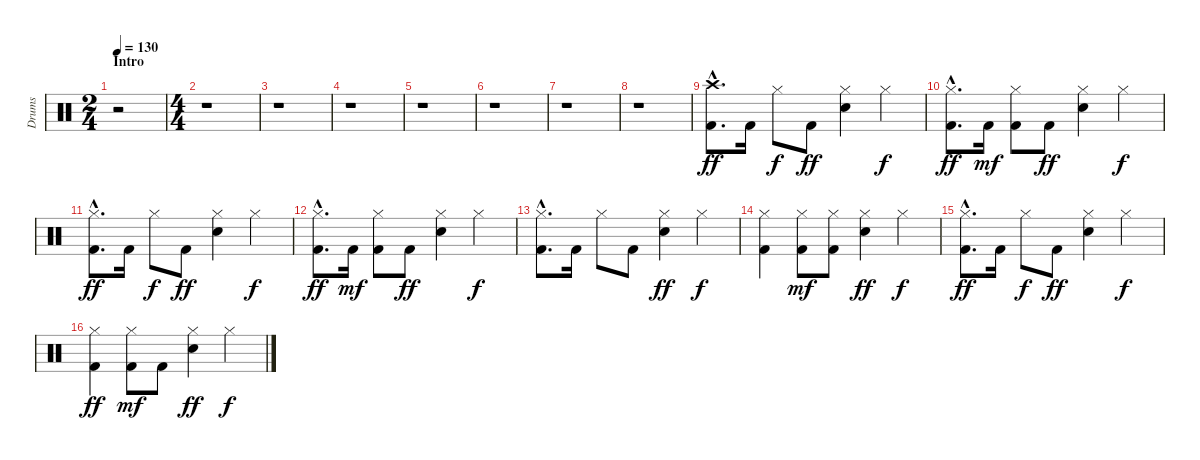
\track ("Drums" "Drums") {instrument percussion}
\staff {score}
\articulation defaults
\ts (2 4)
\section ("" "Intro")
\tempo 130
\clef neutral
\ks c
r.2{dy ff} |
\ts (4 4)
r.1 |
r.1 |
r.1 |
r.1 |
r.1 |
r.1 |
r.1 |
("Crash high (hit)"{hac} "Kick (hit) 2"{hac}).8{d} "Kick (hit) 2".16 "Hi-Hat (closed)".8{dy f} "Kick (hit) 2".8{dy ff} ("Hi-Hat (closed)" "Electric Snare (hit)").4 "Hi-Hat (closed)".4{dy f} |
("Hi-Hat (closed)"{hac} "Kick (hit) 2"{hac}).8{d dy ff} "Kick (hit) 2".16{dy mf} ("Hi-Hat (closed)" "Kick (hit) 2").8 "Kick (hit) 2".8{dy ff} ("Hi-Hat (closed)" "Electric Snare (hit)").4 "Hi-Hat (closed)".4{dy f} |
("Hi-Hat (closed)"{hac} "Kick (hit) 2"{hac}).8{d dy ff} "Kick (hit) 2".16 "Hi-Hat (closed)".8{dy f} "Kick (hit) 2".8{dy ff} ("Hi-Hat (closed)" "Electric Snare (hit)").4 "Hi-Hat (closed)".4{dy f} |
("Hi-Hat (closed)"{hac} "Kick (hit) 2"{hac}).8{d dy ff} "Kick (hit) 2".16{dy mf} ("Hi-Hat (closed)" "Kick (hit) 2").8 "Kick (hit) 2".8{dy ff} ("Hi-Hat (closed)" "Electric Snare (hit)").4 "Hi-Hat (closed)".4{dy f} |
("Hi-Hat (closed)"{hac} "Kick (hit) 2"{hac}).8{d} "Kick (hit) 2".16 "Hi-Hat (closed)".8 "Kick (hit) 2".8 ("Hi-Hat (closed)" "Electric Snare (hit)").4{dy ff} "Hi-Hat (closed)".4{dy f} |
("Hi-Hat (closed)" "Kick (hit) 2").4 ("Hi-Hat (closed)" "Kick (hit) 2").8{dy mf} ("Hi-Hat (closed)" "Kick (hit) 2").8 ("Hi-Hat (closed)" "Electric Snare (hit)").4{dy ff} "Hi-Hat (closed)".4{dy f} |
("Hi-Hat (closed)"{hac} "Kick (hit) 2"{hac}).8{d dy ff} "Kick (hit) 2".16 "Hi-Hat (closed)".8{dy f} "Kick (hit) 2".8{dy ff} ("Hi-Hat (closed)" "Electric Snare (hit)").4 "Hi-Hat (closed)".4{dy f} |
("Hi-Hat (closed)" "Kick (hit) 2").4{dy ff} ("Hi-Hat (closed)" "Kick (hit) 2").8{dy mf} "Kick (hit) 2".8 ("Hi-Hat (closed)" "Electric Snare (hit)").4{dy ff} "Hi-Hat (closed)".4{dy f}
